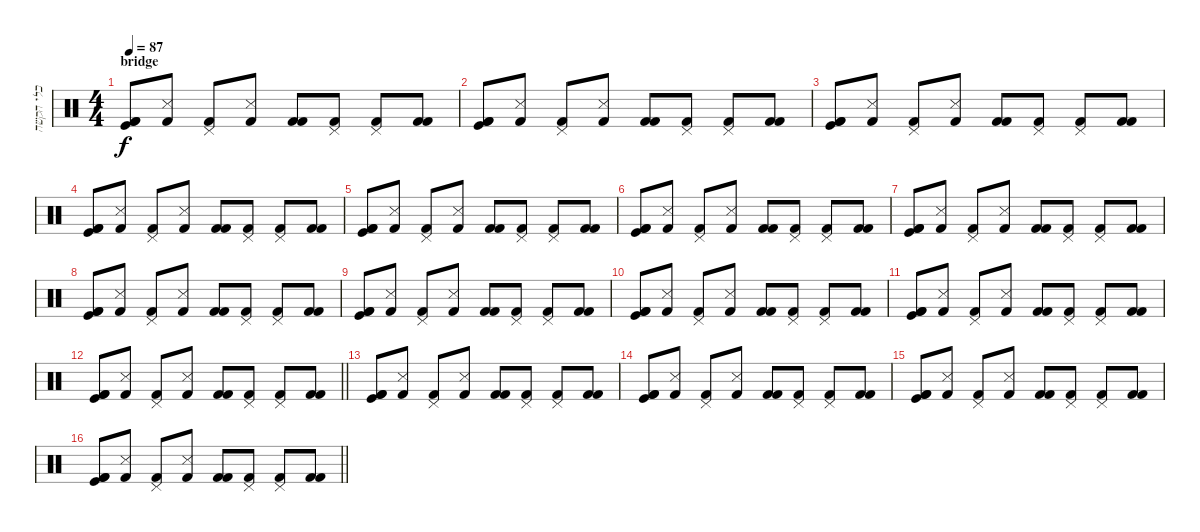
\track ("כלי הקשה" "כלי הקשה") {instrument percussion}
\staff {score}
\articulation defaults
\ts (4 4)
\section ("" "bridge")
\tempo 87
\clef neutral
\ks c
("Kick (hit) 2" "Kick (hit)" "Kick (hit) 2").8{dy f} ("Snare (side stick) 3" "Kick (hit) 2").8 ("Pedal Hi-Hat (hit)" "Kick (hit) 2").8 ("Snare (side stick) 3" "Kick (hit) 2").8 ("Kick (hit) 2" "Kick (hit) 2").8 ("Pedal Hi-Hat (hit)" "Kick (hit) 2").8 ("Pedal Hi-Hat (hit)" "Kick (hit) 2").8 ("Kick (hit) 2" "Kick (hit) 2").8 |
("Kick (hit) 2" "Kick (hit)" "Kick (hit) 2").8 ("Snare (side stick) 3" "Kick (hit) 2").8 ("Pedal Hi-Hat (hit)" "Kick (hit) 2").8 ("Snare (side stick) 3" "Kick (hit) 2").8 ("Kick (hit) 2" "Kick (hit) 2").8 ("Pedal Hi-Hat (hit)" "Kick (hit) 2").8 ("Pedal Hi-Hat (hit)" "Kick (hit) 2").8 ("Kick (hit) 2" "Kick (hit) 2").8 |
("Kick (hit) 2" "Kick (hit)" "Kick (hit) 2").8 ("Snare (side stick) 3" "Kick (hit) 2").8 ("Pedal Hi-Hat (hit)" "Kick (hit) 2").8 ("Snare (side stick) 3" "Kick (hit) 2").8 ("Kick (hit) 2" "Kick (hit) 2").8 ("Pedal Hi-Hat (hit)" "Kick (hit) 2").8 ("Pedal Hi-Hat (hit)" "Kick (hit) 2").8 ("Kick (hit) 2" "Kick (hit) 2").8 |
("Kick (hit) 2" "Kick (hit)" "Kick (hit) 2").8 ("Snare (side stick) 3" "Kick (hit) 2").8 ("Pedal Hi-Hat (hit)" "Kick (hit) 2").8 ("Snare (side stick) 3" "Kick (hit) 2").8 ("Kick (hit) 2" "Kick (hit) 2").8 ("Pedal Hi-Hat (hit)" "Kick (hit) 2").8 ("Pedal Hi-Hat (hit)" "Kick (hit) 2").8 ("Kick (hit) 2" "Kick (hit) 2").8 |
("Kick (hit) 2" "Kick (hit)" "Kick (hit) 2").8 ("Snare (side stick) 3" "Kick (hit) 2").8 ("Pedal Hi-Hat (hit)" "Kick (hit) 2").8 ("Snare (side stick) 3" "Kick (hit) 2").8 ("Kick (hit) 2" "Kick (hit) 2").8 ("Pedal Hi-Hat (hit)" "Kick (hit) 2").8 ("Pedal Hi-Hat (hit)" "Kick (hit) 2").8 ("Kick (hit) 2" "Kick (hit) 2").8 |
("Kick (hit) 2" "Kick (hit)" "Kick (hit) 2").8 ("Snare (side stick) 3" "Kick (hit) 2").8 ("Pedal Hi-Hat (hit)" "Kick (hit) 2").8 ("Snare (side stick) 3" "Kick (hit) 2").8 ("Kick (hit) 2" "Kick (hit) 2").8 ("Pedal Hi-Hat (hit)" "Kick (hit) 2").8 ("Pedal Hi-Hat (hit)" "Kick (hit) 2").8 ("Kick (hit) 2" "Kick (hit) 2").8 |
("Kick (hit) 2" "Kick (hit)" "Kick (hit) 2").8 ("Snare (side stick) 3" "Kick (hit) 2").8 ("Pedal Hi-Hat (hit)" "Kick (hit) 2").8 ("Snare (side stick) 3" "Kick (hit) 2").8 ("Kick (hit) 2" "Kick (hit) 2").8 ("Pedal Hi-Hat (hit)" "Kick (hit) 2").8 ("Pedal Hi-Hat (hit)" "Kick (hit) 2").8 ("Kick (hit) 2" "Kick (hit) 2").8 |
("Kick (hit) 2" "Kick (hit)" "Kick (hit) 2").8 ("Snare (side stick) 3" "Kick (hit) 2").8 ("Pedal Hi-Hat (hit)" "Kick (hit) 2").8 ("Snare (side stick) 3" "Kick (hit) 2").8 ("Kick (hit) 2" "Kick (hit) 2").8 ("Pedal Hi-Hat (hit)" "Kick (hit) 2").8 ("Pedal Hi-Hat (hit)" "Kick (hit) 2").8 ("Kick (hit) 2" "Kick (hit) 2").8 |
("Kick (hit) 2" "Kick (hit)" "Kick (hit) 2").8 ("Snare (side stick) 3" "Kick (hit) 2").8 ("Pedal Hi-Hat (hit)" "Kick (hit) 2").8 ("Snare (side stick) 3" "Kick (hit) 2").8 ("Kick (hit) 2" "Kick (hit) 2").8 ("Pedal Hi-Hat (hit)" "Kick (hit) 2").8 ("Pedal Hi-Hat (hit)" "Kick (hit) 2").8 ("Kick (hit) 2" "Kick (hit) 2").8 |
("Kick (hit) 2" "Kick (hit)" "Kick (hit) 2").8 ("Snare (side stick) 3" "Kick (hit) 2").8 ("Pedal Hi-Hat (hit)" "Kick (hit) 2").8 ("Snare (side stick) 3" "Kick (hit) 2").8 ("Kick (hit) 2" "Kick (hit) 2").8 ("Pedal Hi-Hat (hit)" "Kick (hit) 2").8 ("Pedal Hi-Hat (hit)" "Kick (hit) 2").8 ("Kick (hit) 2" "Kick (hit) 2").8 |
("Kick (hit) 2" "Kick (hit)" "Kick (hit) 2").8 ("Snare (side stick) 3" "Kick (hit) 2").8 ("Pedal Hi-Hat (hit)" "Kick (hit) 2").8 ("Snare (side stick) 3" "Kick (hit) 2").8 ("Kick (hit) 2" "Kick (hit) 2").8 ("Pedal Hi-Hat (hit)" "Kick (hit) 2").8 ("Pedal Hi-Hat (hit)" "Kick (hit) 2").8 ("Kick (hit) 2" "Kick (hit) 2").8 |
\barLineRight lightlight
("Kick (hit) 2" "Kick (hit)" "Kick (hit) 2").8 ("Snare (side stick) 3" "Kick (hit) 2").8 ("Pedal Hi-Hat (hit)" "Kick (hit) 2").8 ("Snare (side stick) 3" "Kick (hit) 2").8 ("Kick (hit) 2" "Kick (hit) 2").8 ("Pedal Hi-Hat (hit)" "Kick (hit) 2").8 ("Pedal Hi-Hat (hit)" "Kick (hit) 2").8 ("Kick (hit) 2" "Kick (hit) 2").8 |
("Kick (hit) 2" "Kick (hit)" "Kick (hit) 2").8 ("Snare (side stick) 3" "Kick (hit) 2").8 ("Pedal Hi-Hat (hit)" "Kick (hit) 2").8 ("Snare (side stick) 3" "Kick (hit) 2").8 ("Kick (hit) 2" "Kick (hit) 2").8 ("Pedal Hi-Hat (hit)" "Kick (hit) 2").8 ("Pedal Hi-Hat (hit)" "Kick (hit) 2").8 ("Kick (hit) 2" "Kick (hit) 2").8 |
("Kick (hit) 2" "Kick (hit)" "Kick (hit) 2").8 ("Snare (side stick) 3" "Kick (hit) 2").8 ("Pedal Hi-Hat (hit)" "Kick (hit) 2").8 ("Snare (side stick) 3" "Kick (hit) 2").8 ("Kick (hit) 2" "Kick (hit) 2").8 ("Pedal Hi-Hat (hit)" "Kick (hit) 2").8 ("Pedal Hi-Hat (hit)" "Kick (hit) 2").8 ("Kick (hit) 2" "Kick (hit) 2").8 |
("Kick (hit) 2" "Kick (hit)" "Kick (hit) 2").8 ("Snare (side stick) 3" "Kick (hit) 2").8 ("Pedal Hi-Hat (hit)" "Kick (hit) 2").8 ("Snare (side stick) 3" "Kick (hit) 2").8 ("Kick (hit) 2" "Kick (hit) 2").8 ("Pedal Hi-Hat (hit)" "Kick (hit) 2").8 ("Pedal Hi-Hat (hit)" "Kick (hit) 2").8 ("Kick (hit) 2" "Kick (hit) 2").8 |
\barLineRight lightlight
("Kick (hit) 2" "Kick (hit)" "Kick (hit) 2").8 ("Snare (side stick) 3" "Kick (hit) 2").8 ("Pedal Hi-Hat (hit)" "Kick (hit) 2").8 ("Snare (side stick) 3" "Kick (hit) 2").8 ("Kick (hit) 2" "Kick (hit) 2").8 ("Pedal Hi-Hat (hit)" "Kick (hit) 2").8 ("Pedal Hi-Hat (hit)" "Kick (hit) 2").8 ("Kick (hit) 2" "Kick (hit) 2").8
